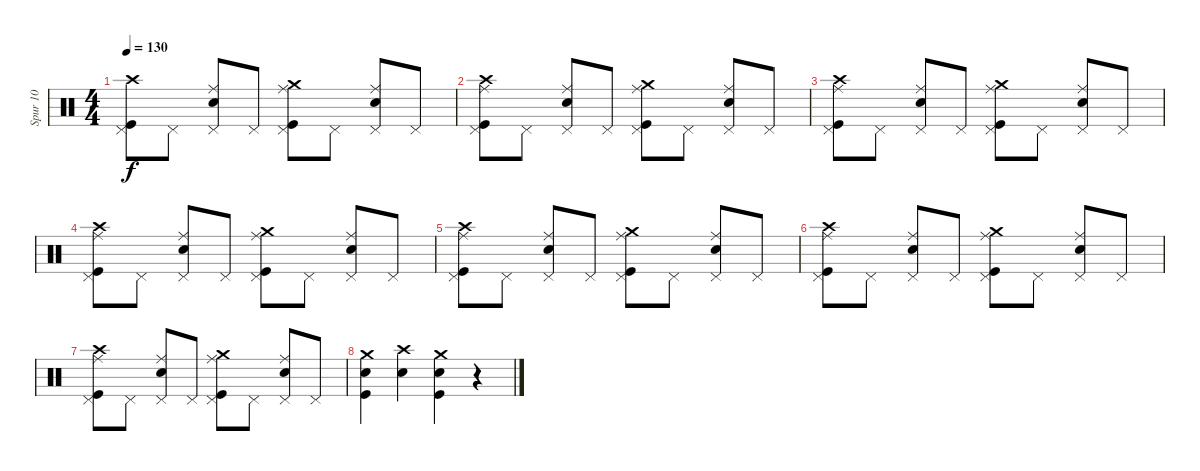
\track ("Spur 10" "Spur 10") {instrument percussion}
\staff {score}
\articulation defaults
\ts (4 4)
\tempo 130
\clef neutral
\ks c
("Crash high (hit)" "Pedal Hi-Hat (hit)" "Kick (hit)").8{dy f} "Pedal Hi-Hat (hit)".8 ("Ride (middle)" "Pedal Hi-Hat (hit)" "Electric Snare (hit)").8 "Pedal Hi-Hat (hit)".8 ("Crash medium (hit)" "Ride (middle)" "Pedal Hi-Hat (hit)" "Kick (hit)").8 "Pedal Hi-Hat (hit)".8 ("Ride (middle)" "Pedal Hi-Hat (hit)" "Electric Snare (hit)").8 "Pedal Hi-Hat (hit)".8 |
("Crash high (hit)" "Ride (middle)" "Pedal Hi-Hat (hit)" "Kick (hit)").8 "Pedal Hi-Hat (hit)".8 ("Ride (middle)" "Pedal Hi-Hat (hit)" "Electric Snare (hit)").8 "Pedal Hi-Hat (hit)".8 ("Crash medium (hit)" "Ride (middle)" "Pedal Hi-Hat (hit)" "Kick (hit)").8 "Pedal Hi-Hat (hit)".8 ("Ride (middle)" "Pedal Hi-Hat (hit)" "Electric Snare (hit)").8 "Pedal Hi-Hat (hit)".8 |
("Crash high (hit)" "Ride (middle)" "Pedal Hi-Hat (hit)" "Kick (hit)").8 "Pedal Hi-Hat (hit)".8 ("Ride (middle)" "Pedal Hi-Hat (hit)" "Electric Snare (hit)").8 "Pedal Hi-Hat (hit)".8 ("Crash medium (hit)" "Ride (middle)" "Pedal Hi-Hat (hit)" "Kick (hit)").8 "Pedal Hi-Hat (hit)".8 ("Ride (middle)" "Pedal Hi-Hat (hit)" "Electric Snare (hit)").8 "Pedal Hi-Hat (hit)".8 |
("Crash high (hit)" "Ride (middle)" "Pedal Hi-Hat (hit)" "Kick (hit)").8 "Pedal Hi-Hat (hit)".8 ("Ride (middle)" "Pedal Hi-Hat (hit)" "Electric Snare (hit)").8 "Pedal Hi-Hat (hit)".8 ("Crash medium (hit)" "Ride (middle)" "Pedal Hi-Hat (hit)" "Kick (hit)").8 "Pedal Hi-Hat (hit)".8 ("Ride (middle)" "Pedal Hi-Hat (hit)" "Electric Snare (hit)").8 "Pedal Hi-Hat (hit)".8 |
("Crash high (hit)" "Ride (middle)" "Pedal Hi-Hat (hit)" "Kick (hit)").8 "Pedal Hi-Hat (hit)".8 ("Ride (middle)" "Pedal Hi-Hat (hit)" "Electric Snare (hit)").8 "Pedal Hi-Hat (hit)".8 ("Crash medium (hit)" "Ride (middle)" "Pedal Hi-Hat (hit)" "Kick (hit)").8 "Pedal Hi-Hat (hit)".8 ("Ride (middle)" "Pedal Hi-Hat (hit)" "Electric Snare (hit)").8 "Pedal Hi-Hat (hit)".8 |
("Crash high (hit)" "Ride (middle)" "Pedal Hi-Hat (hit)" "Kick (hit)").8 "Pedal Hi-Hat (hit)".8 ("Ride (middle)" "Pedal Hi-Hat (hit)" "Electric Snare (hit)").8 "Pedal Hi-Hat (hit)".8 ("Crash medium (hit)" "Ride (middle)" "Pedal Hi-Hat (hit)" "Kick (hit)").8 "Pedal Hi-Hat (hit)".8 ("Ride (middle)" "Pedal Hi-Hat (hit)" "Electric Snare (hit)").8 "Pedal Hi-Hat (hit)".8 |
("Crash high (hit)" "Ride (middle)" "Pedal Hi-Hat (hit)" "Kick (hit)").8 "Pedal Hi-Hat (hit)".8 ("Ride (middle)" "Pedal Hi-Hat (hit)" "Electric Snare (hit)").8 "Pedal Hi-Hat (hit)".8 ("Crash medium (hit)" "Ride (middle)" "Pedal Hi-Hat (hit)" "Kick (hit)").8 "Pedal Hi-Hat (hit)".8 ("Ride (middle)" "Pedal Hi-Hat (hit)" "Electric Snare (hit)").8 "Pedal Hi-Hat (hit)".8 |
("Electric Snare (hit)" "Crash medium (hit)" "Kick (hit)").4 ("Crash high (hit)" "Electric Snare (hit)").4 ("Electric Snare (hit)" "Crash medium (hit)" "Kick (hit)").4 r.4
